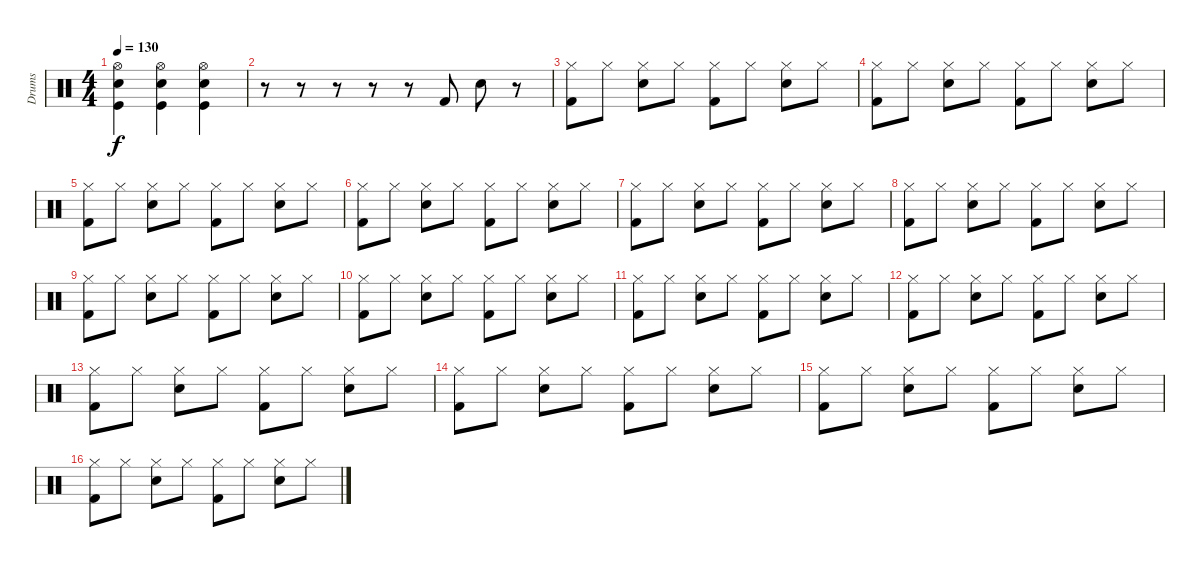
\track ("Drums" "Drums") {instrument percussion}
\staff {score}
\articulation defaults
\ts (4 4)
\tempo 130
\clef neutral
\ks c
("Hi-Hat (open)" "Electric Snare (hit)" "Kick (hit)").4{dy f} ("Hi-Hat (open)" "Electric Snare (hit)" "Kick (hit)").4 ("Hi-Hat (open)" "Electric Snare (hit)" "Kick (hit)").4 |
r.8 r.8 r.8 r.8 r.8 "Kick (hit) 2".8 "Snare (hit) 2".8 r.8 |
("Hi-Hat (closed)" "Kick (hit) 2").8 "Hi-Hat (closed)".8 ("Hi-Hat (closed)" "Snare (hit) 2").8 "Hi-Hat (closed)".8 ("Hi-Hat (closed)" "Kick (hit) 2").8 "Hi-Hat (closed)".8 ("Hi-Hat (closed)" "Snare (hit) 2").8 "Hi-Hat (closed)".8 |
("Hi-Hat (closed)" "Kick (hit) 2").8 "Hi-Hat (closed)".8 ("Hi-Hat (closed)" "Snare (hit) 2").8 "Hi-Hat (closed)".8 ("Hi-Hat (closed)" "Kick (hit) 2").8 "Hi-Hat (closed)".8 ("Hi-Hat (closed)" "Snare (hit) 2").8 "Hi-Hat (closed)".8 |
("Hi-Hat (closed)" "Kick (hit) 2").8 "Hi-Hat (closed)".8 ("Hi-Hat (closed)" "Snare (hit) 2").8 "Hi-Hat (closed)".8 ("Hi-Hat (closed)" "Kick (hit) 2").8 "Hi-Hat (closed)".8 ("Hi-Hat (closed)" "Snare (hit) 2").8 "Hi-Hat (closed)".8 |
("Hi-Hat (closed)" "Kick (hit) 2").8 "Hi-Hat (closed)".8 ("Hi-Hat (closed)" "Snare (hit) 2").8 "Hi-Hat (closed)".8 ("Hi-Hat (closed)" "Kick (hit) 2").8 "Hi-Hat (closed)".8 ("Hi-Hat (closed)" "Snare (hit) 2").8 "Hi-Hat (closed)".8 |
("Hi-Hat (closed)" "Kick (hit) 2").8 "Hi-Hat (closed)".8 ("Hi-Hat (closed)" "Snare (hit) 2").8 "Hi-Hat (closed)".8 ("Hi-Hat (closed)" "Kick (hit) 2").8 "Hi-Hat (closed)".8 ("Hi-Hat (closed)" "Snare (hit) 2").8 "Hi-Hat (closed)".8 |
("Hi-Hat (closed)" "Kick (hit) 2").8 "Hi-Hat (closed)".8 ("Hi-Hat (closed)" "Snare (hit) 2").8 "Hi-Hat (closed)".8 ("Hi-Hat (closed)" "Kick (hit) 2").8 "Hi-Hat (closed)".8 ("Hi-Hat (closed)" "Snare (hit) 2").8 "Hi-Hat (closed)".8 |
("Hi-Hat (closed)" "Kick (hit) 2").8 "Hi-Hat (closed)".8 ("Hi-Hat (closed)" "Snare (hit) 2").8 "Hi-Hat (closed)".8 ("Hi-Hat (closed)" "Kick (hit) 2").8 "Hi-Hat (closed)".8 ("Hi-Hat (closed)" "Snare (hit) 2").8 "Hi-Hat (closed)".8 |
("Hi-Hat (closed)" "Kick (hit) 2").8 "Hi-Hat (closed)".8 ("Hi-Hat (closed)" "Snare (hit) 2").8 "Hi-Hat (closed)".8 ("Hi-Hat (closed)" "Kick (hit) 2").8 "Hi-Hat (closed)".8 ("Hi-Hat (closed)" "Snare (hit) 2").8 "Hi-Hat (closed)".8 |
("Hi-Hat (closed)" "Kick (hit) 2").8 "Hi-Hat (closed)".8 ("Hi-Hat (closed)" "Snare (hit) 2").8 "Hi-Hat (closed)".8 ("Hi-Hat (closed)" "Kick (hit) 2").8 "Hi-Hat (closed)".8 ("Hi-Hat (closed)" "Snare (hit) 2").8 "Hi-Hat (closed)".8 |
("Hi-Hat (closed)" "Kick (hit) 2").8 "Hi-Hat (closed)".8 ("Hi-Hat (closed)" "Snare (hit) 2").8 "Hi-Hat (closed)".8 ("Hi-Hat (closed)" "Kick (hit) 2").8 "Hi-Hat (closed)".8 ("Hi-Hat (closed)" "Snare (hit) 2").8 "Hi-Hat (closed)".8 |
("Hi-Hat (closed)" "Kick (hit) 2").8 "Hi-Hat (closed)".8 ("Hi-Hat (closed)" "Snare (hit) 2").8 "Hi-Hat (closed)".8 ("Hi-Hat (closed)" "Kick (hit) 2").8 "Hi-Hat (closed)".8 ("Hi-Hat (closed)" "Snare (hit) 2").8 "Hi-Hat (closed)".8 |
("Hi-Hat (closed)" "Kick (hit) 2").8 "Hi-Hat (closed)".8 ("Hi-Hat (closed)" "Snare (hit) 2").8 "Hi-Hat (closed)".8 ("Hi-Hat (closed)" "Kick (hit) 2").8 "Hi-Hat (closed)".8 ("Hi-Hat (closed)" "Snare (hit) 2").8 "Hi-Hat (closed)".8 |
("Hi-Hat (closed)" "Kick (hit) 2").8 "Hi-Hat (closed)".8 ("Hi-Hat (closed)" "Snare (hit) 2").8 "Hi-Hat (closed)".8 ("Hi-Hat (closed)" "Kick (hit) 2").8 "Hi-Hat (closed)".8 ("Hi-Hat (closed)" "Snare (hit) 2").8 "Hi-Hat (closed)".8 |
("Hi-Hat (closed)" "Kick (hit) 2").8 "Hi-Hat (closed)".8 ("Hi-Hat (closed)" "Snare (hit) 2").8 "Hi-Hat (closed)".8 ("Hi-Hat (closed)" "Kick (hit) 2").8 "Hi-Hat (closed)".8 ("Hi-Hat (closed)" "Snare (hit) 2").8 "Hi-Hat (closed)".8
